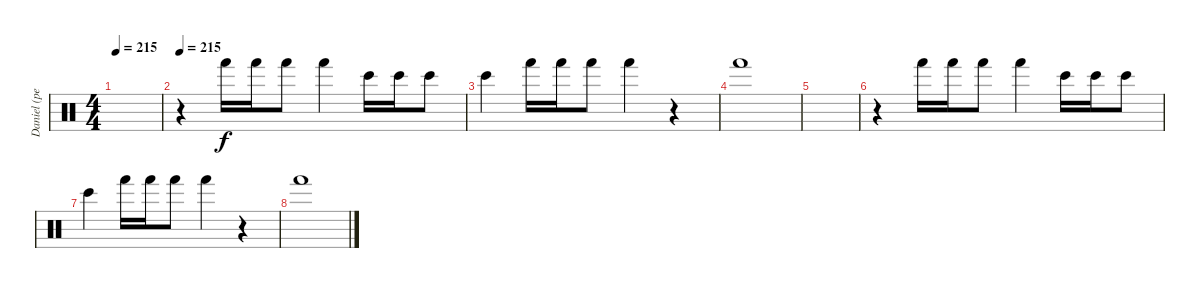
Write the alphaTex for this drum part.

\track ("Daniel (percussion)" "Daniel (pe") {instrument percussion}
\staff {score}
\articulation defaults
\ts (4 4)
\tempo 215
\clef neutral
\ks c
|
\tempo 215
r.4 "Hand (hit)".16 "Hand (hit)".16 "Hand (hit)".8 "Hand (hit)".4 "Bongo High (hit)".16 "Bongo High (hit)".16 "Bongo High (hit)".8 |
"Bongo High (hit)".4 "Hand (hit)".16 "Hand (hit)".16 "Hand (hit)".8 "Hand (hit)".4 r.4 |
"Hand (hit)".1 |
|
r.4 "Hand (hit)".16 "Hand (hit)".16 "Hand (hit)".8 "Hand (hit)".4 "Bongo High (hit)".16 "Bongo High (hit)".16 "Bongo High (hit)".8 |
"Bongo High (hit)".4 "Hand (hit)".16 "Hand (hit)".16 "Hand (hit)".8 "Hand (hit)".4 r.4 |
"Hand (hit)".1
